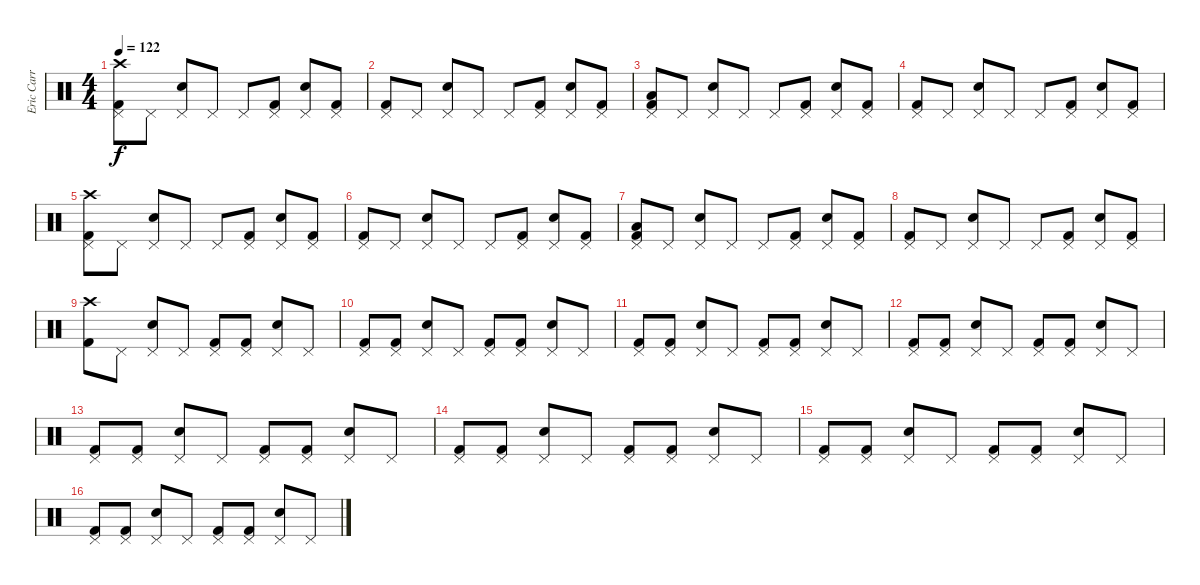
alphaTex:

\track ("Eric Carr" "Eric Carr") {instrument percussion}
\staff {score}
\articulation defaults
\ts (4 4)
\tempo 122
\clef neutral
\ks c
("Kick (hit) 2" "Pedal Hi-Hat (hit)" "Crash high (hit)").8{dy f} "Pedal Hi-Hat (hit)".8 ("Pedal Hi-Hat (hit)" "Snare (hit) 2").8 "Pedal Hi-Hat (hit)".8 "Pedal Hi-Hat (hit)".8 ("Kick (hit) 2" "Pedal Hi-Hat (hit)").8 ("Pedal Hi-Hat (hit)" "Snare (hit) 2").8 ("Kick (hit) 2" "Pedal Hi-Hat (hit)").8 |
("Kick (hit) 2" "Pedal Hi-Hat (hit)").8 "Pedal Hi-Hat (hit)".8 ("Pedal Hi-Hat (hit)" "Snare (hit) 2").8 "Pedal Hi-Hat (hit)".8 "Pedal Hi-Hat (hit)".8 ("Kick (hit) 2" "Pedal Hi-Hat (hit)").8 ("Pedal Hi-Hat (hit)" "Snare (hit) 2").8 ("Kick (hit) 2" "Pedal Hi-Hat (hit)").8 |
("Kick (hit) 2" "Pedal Hi-Hat (hit)" "Low Tom (hit)").8 "Pedal Hi-Hat (hit)".8 ("Pedal Hi-Hat (hit)" "Snare (hit) 2").8 "Pedal Hi-Hat (hit)".8 "Pedal Hi-Hat (hit)".8 ("Kick (hit) 2" "Pedal Hi-Hat (hit)").8 ("Pedal Hi-Hat (hit)" "Snare (hit) 2").8 ("Kick (hit) 2" "Pedal Hi-Hat (hit)").8 |
("Kick (hit) 2" "Pedal Hi-Hat (hit)").8 "Pedal Hi-Hat (hit)".8 ("Pedal Hi-Hat (hit)" "Snare (hit) 2").8 "Pedal Hi-Hat (hit)".8 "Pedal Hi-Hat (hit)".8 ("Kick (hit) 2" "Pedal Hi-Hat (hit)").8 ("Pedal Hi-Hat (hit)" "Snare (hit) 2").8 ("Kick (hit) 2" "Pedal Hi-Hat (hit)").8 |
("Kick (hit) 2" "Pedal Hi-Hat (hit)" "Crash high (hit)").8 "Pedal Hi-Hat (hit)".8 ("Pedal Hi-Hat (hit)" "Snare (hit) 2").8 "Pedal Hi-Hat (hit)".8 "Pedal Hi-Hat (hit)".8 ("Kick (hit) 2" "Pedal Hi-Hat (hit)").8 ("Pedal Hi-Hat (hit)" "Snare (hit) 2").8 ("Kick (hit) 2" "Pedal Hi-Hat (hit)").8 |
("Kick (hit) 2" "Pedal Hi-Hat (hit)").8 "Pedal Hi-Hat (hit)".8 ("Pedal Hi-Hat (hit)" "Snare (hit) 2").8 "Pedal Hi-Hat (hit)".8 "Pedal Hi-Hat (hit)".8 ("Kick (hit) 2" "Pedal Hi-Hat (hit)").8 ("Pedal Hi-Hat (hit)" "Snare (hit) 2").8 ("Kick (hit) 2" "Pedal Hi-Hat (hit)").8 |
("Kick (hit) 2" "Pedal Hi-Hat (hit)" "Low Tom (hit)").8 "Pedal Hi-Hat (hit)".8 ("Pedal Hi-Hat (hit)" "Snare (hit) 2").8 "Pedal Hi-Hat (hit)".8 "Pedal Hi-Hat (hit)".8 ("Kick (hit) 2" "Pedal Hi-Hat (hit)").8 ("Pedal Hi-Hat (hit)" "Snare (hit) 2").8 ("Kick (hit) 2" "Pedal Hi-Hat (hit)").8 |
("Kick (hit) 2" "Pedal Hi-Hat (hit)").8 "Pedal Hi-Hat (hit)".8 ("Pedal Hi-Hat (hit)" "Snare (hit) 2").8 "Pedal Hi-Hat (hit)".8 "Pedal Hi-Hat (hit)".8 ("Kick (hit) 2" "Pedal Hi-Hat (hit)").8 ("Pedal Hi-Hat (hit)" "Snare (hit) 2").8 ("Kick (hit) 2" "Pedal Hi-Hat (hit)").8 |
("Kick (hit) 2" "Crash high (hit)").8 "Pedal Hi-Hat (hit)".8 ("Pedal Hi-Hat (hit)" "Snare (hit) 2").8 "Pedal Hi-Hat (hit)".8 ("Kick (hit) 2" "Pedal Hi-Hat (hit)").8 ("Kick (hit) 2" "Pedal Hi-Hat (hit)").8 ("Pedal Hi-Hat (hit)" "Snare (hit) 2").8 "Pedal Hi-Hat (hit)".8 |
("Kick (hit) 2" "Pedal Hi-Hat (hit)").8 ("Kick (hit) 2" "Pedal Hi-Hat (hit)").8 ("Pedal Hi-Hat (hit)" "Snare (hit) 2").8 "Pedal Hi-Hat (hit)".8 ("Kick (hit) 2" "Pedal Hi-Hat (hit)").8 ("Kick (hit) 2" "Pedal Hi-Hat (hit)").8 ("Pedal Hi-Hat (hit)" "Snare (hit) 2").8 "Pedal Hi-Hat (hit)".8 |
("Kick (hit) 2" "Pedal Hi-Hat (hit)").8 ("Kick (hit) 2" "Pedal Hi-Hat (hit)").8 ("Pedal Hi-Hat (hit)" "Snare (hit) 2").8 "Pedal Hi-Hat (hit)".8 ("Kick (hit) 2" "Pedal Hi-Hat (hit)").8 ("Kick (hit) 2" "Pedal Hi-Hat (hit)").8 ("Pedal Hi-Hat (hit)" "Snare (hit) 2").8 "Pedal Hi-Hat (hit)".8 |
("Kick (hit) 2" "Pedal Hi-Hat (hit)").8 ("Kick (hit) 2" "Pedal Hi-Hat (hit)").8 ("Pedal Hi-Hat (hit)" "Snare (hit) 2").8 "Pedal Hi-Hat (hit)".8 ("Kick (hit) 2" "Pedal Hi-Hat (hit)").8 ("Kick (hit) 2" "Pedal Hi-Hat (hit)").8 ("Pedal Hi-Hat (hit)" "Snare (hit) 2").8 "Pedal Hi-Hat (hit)".8 |
("Kick (hit) 2" "Pedal Hi-Hat (hit)").8 ("Kick (hit) 2" "Pedal Hi-Hat (hit)").8 ("Pedal Hi-Hat (hit)" "Snare (hit) 2").8 "Pedal Hi-Hat (hit)".8 ("Kick (hit) 2" "Pedal Hi-Hat (hit)").8 ("Kick (hit) 2" "Pedal Hi-Hat (hit)").8 ("Pedal Hi-Hat (hit)" "Snare (hit) 2").8 "Pedal Hi-Hat (hit)".8 |
("Kick (hit) 2" "Pedal Hi-Hat (hit)").8 ("Kick (hit) 2" "Pedal Hi-Hat (hit)").8 ("Pedal Hi-Hat (hit)" "Snare (hit) 2").8 "Pedal Hi-Hat (hit)".8 ("Kick (hit) 2" "Pedal Hi-Hat (hit)").8 ("Kick (hit) 2" "Pedal Hi-Hat (hit)").8 ("Pedal Hi-Hat (hit)" "Snare (hit) 2").8 "Pedal Hi-Hat (hit)".8 |
("Kick (hit) 2" "Pedal Hi-Hat (hit)").8 ("Kick (hit) 2" "Pedal Hi-Hat (hit)").8 ("Pedal Hi-Hat (hit)" "Snare (hit) 2").8 "Pedal Hi-Hat (hit)".8 ("Kick (hit) 2" "Pedal Hi-Hat (hit)").8 ("Kick (hit) 2" "Pedal Hi-Hat (hit)").8 ("Pedal Hi-Hat (hit)" "Snare (hit) 2").8 "Pedal Hi-Hat (hit)".8 |
("Kick (hit) 2" "Pedal Hi-Hat (hit)").8 ("Kick (hit) 2" "Pedal Hi-Hat (hit)").8 ("Pedal Hi-Hat (hit)" "Snare (hit) 2").8 "Pedal Hi-Hat (hit)".8 ("Kick (hit) 2" "Pedal Hi-Hat (hit)").8 ("Kick (hit) 2" "Pedal Hi-Hat (hit)").8 ("Pedal Hi-Hat (hit)" "Snare (hit) 2").8 "Pedal Hi-Hat (hit)".8
